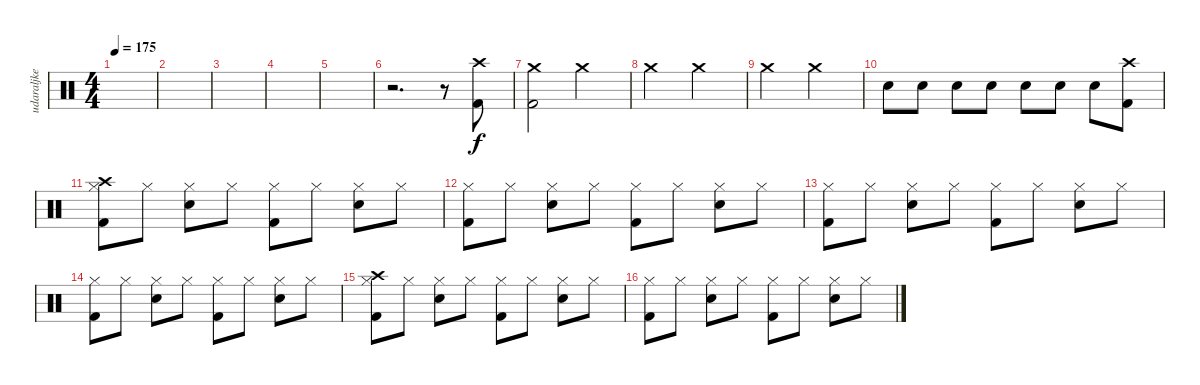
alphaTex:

\track ("udaraljke" "udaraljke") {instrument percussion}
\staff {score}
\articulation defaults
\ts (4 4)
\tempo 175
\clef neutral
\ks c
|
|
|
|
|
r.2{d} r.8 ("Crash high (hit)" "Kick (hit) 2").8 |
("Crash medium (hit)" "Kick (hit) 2").2 "Crash medium (hit)".2 |
"Crash medium (hit)".2 "Crash medium (hit)".2 |
"Crash medium (hit)".2 "Crash medium (hit)".2 |
"Electric Snare (hit)".8 "Electric Snare (hit)".8 "Electric Snare (hit)".8 "Electric Snare (hit)".8 "Electric Snare (hit)".8 "Electric Snare (hit)".8 "Electric Snare (hit)".8 ("Crash high (hit)" "Kick (hit) 2").8 |
("Crash high (hit)" "Hi-Hat (closed)" "Kick (hit) 2").8 "Hi-Hat (closed)".8 ("Hi-Hat (closed)" "Snare (hit) 2").8 "Hi-Hat (closed)".8 ("Hi-Hat (closed)" "Kick (hit) 2").8 "Hi-Hat (closed)".8 ("Hi-Hat (closed)" "Snare (hit) 2").8 "Hi-Hat (closed)".8 |
("Hi-Hat (closed)" "Kick (hit) 2").8 "Hi-Hat (closed)".8 ("Hi-Hat (closed)" "Snare (hit) 2").8 "Hi-Hat (closed)".8 ("Hi-Hat (closed)" "Kick (hit) 2").8 "Hi-Hat (closed)".8 ("Hi-Hat (closed)" "Snare (hit) 2").8 "Hi-Hat (closed)".8 |
("Hi-Hat (closed)" "Kick (hit) 2").8 "Hi-Hat (closed)".8 ("Hi-Hat (closed)" "Snare (hit) 2").8 "Hi-Hat (closed)".8 ("Hi-Hat (closed)" "Kick (hit) 2").8 "Hi-Hat (closed)".8 ("Hi-Hat (closed)" "Snare (hit) 2").8 "Hi-Hat (closed)".8 |
("Hi-Hat (closed)" "Kick (hit) 2").8 "Hi-Hat (closed)".8 ("Hi-Hat (closed)" "Snare (hit) 2").8 "Hi-Hat (closed)".8 ("Hi-Hat (closed)" "Kick (hit) 2").8 "Hi-Hat (closed)".8 ("Hi-Hat (closed)" "Snare (hit) 2").8 "Hi-Hat (closed)".8 |
("Crash high (hit)" "Hi-Hat (closed)" "Kick (hit) 2").8 "Hi-Hat (closed)".8 ("Hi-Hat (closed)" "Snare (hit) 2").8 "Hi-Hat (closed)".8 ("Hi-Hat (closed)" "Kick (hit) 2").8 "Hi-Hat (closed)".8 ("Hi-Hat (closed)" "Snare (hit) 2").8 "Hi-Hat (closed)".8 |
("Hi-Hat (closed)" "Kick (hit) 2").8 "Hi-Hat (closed)".8 ("Hi-Hat (closed)" "Snare (hit) 2").8 "Hi-Hat (closed)".8 ("Hi-Hat (closed)" "Kick (hit) 2").8 "Hi-Hat (closed)".8 ("Hi-Hat (closed)" "Snare (hit) 2").8 "Hi-Hat (closed)".8
